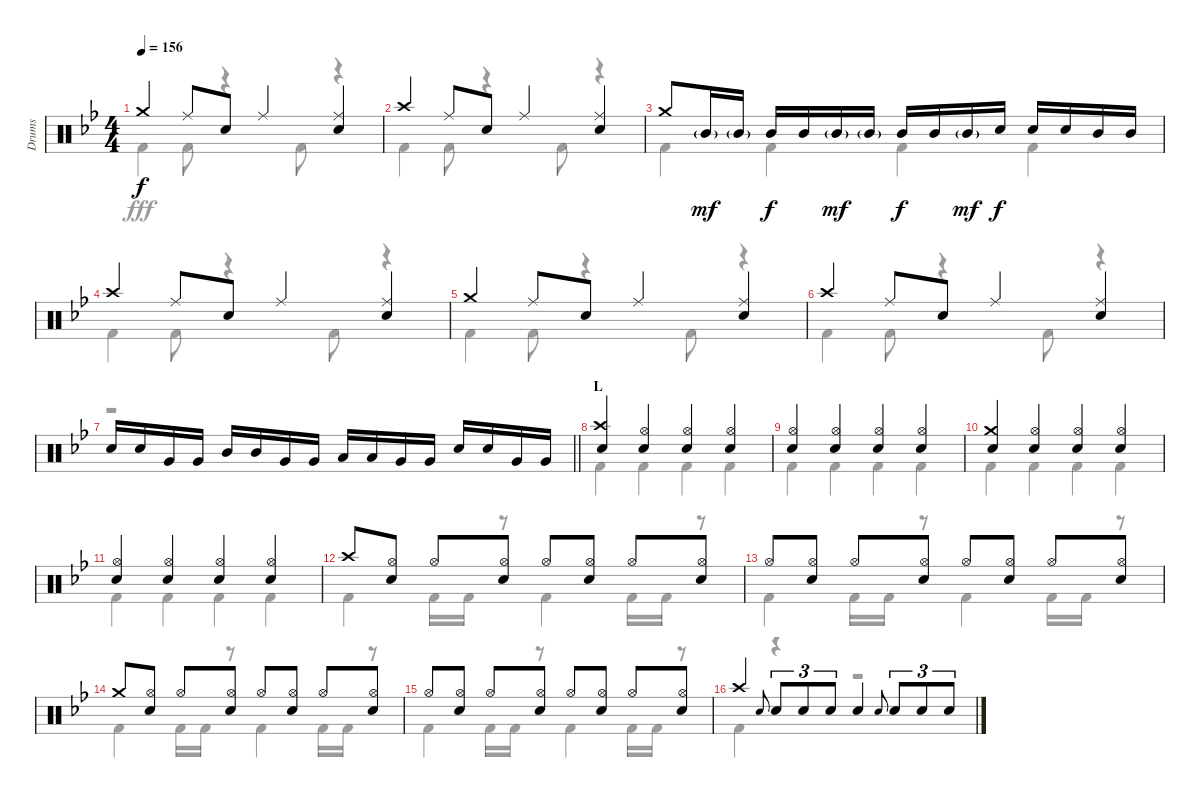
\track ("Drums" "Drums") {instrument percussion}
\staff {score}
\articulation defaults
\voice
\ts (4 4)
\tempo 156
\clef neutral
\ks bb "Crash medium (hit)".4{dy f} "Ride (middle)".8 "Snare (hit) 2".8 "Ride (middle)".4
("Ride (middle)" "Snare (hit) 2").4 |
"Crash high (hit)".4 "Ride (middle)".8 "Snare (hit) 2".8 "Ride (middle)".4 ("Ride (middle)" "Snare (hit) 2").4 |
"Crash medium (hit)".8 "Mid Tom (hit)"{g}.16{dy mf} "Mid Tom (hit)"{g}.16 "Mid Tom (hit)".16{dy f} "Mid Tom (hit)".16 "Mid Tom (hit)"{g}.16{dy mf} "Mid Tom (hit)"{g}.16 "Mid Tom (hit)".16{dy f} "Mid Tom (hit)".16 "Mid Tom (hit)"{g}.16{dy mf} "Snare (hit) 2".16{dy f} "Snare (hit) 2".16 "Snare (hit) 2".16 "Mid Tom (hit)".16 "Mid Tom (hit)".16 |
"Crash high (hit)".4 "Ride (middle)".8 "Snare (hit) 2".8 "Ride (middle)".4 ("Ride (middle)" "Snare (hit) 2").4 |
"Crash medium (hit)".4 "Ride (middle)".8 "Snare (hit) 2".8 "Ride (middle)".4 ("Ride (middle)" "Snare (hit) 2").4 |
"Crash high (hit)".4 "Ride (middle)".8 "Snare (hit) 2".8 "Ride (middle)".4 ("Ride (middle)" "Snare (hit) 2").4 |
\barLineRight lightlight "Snare (hit) 2".16 "Snare (hit) 2".16 "Very Low Tom (hit)".16 "Very Low Tom (hit)".16 "Mid Tom (hit)".16 "Mid Tom (hit)".16 "Very Low Tom (hit)".16 "Very Low Tom (hit)".16 "Low Tom (hit)".16 "Low Tom (hit)".16 "Very Low Tom (hit)".16 "Very Low Tom (hit)".16 "Snare (hit) 2".16 "Snare (hit) 2".16 "Very Low Tom (hit)".16 "Very Low Tom (hit)".16
|
\section ("" "L")
("Crash high (hit)" "Snare (hit) 2").4 ("Hi-Hat (open)" "Snare (hit) 2").4 ("Hi-Hat (open)" "Snare (hit) 2").4 ("Hi-Hat (open)" "Snare (hit) 2").4 |
("Hi-Hat (open)" "Snare (hit) 2").4 ("Hi-Hat (open)" "Snare (hit) 2").4 ("Hi-Hat (open)" "Snare (hit) 2").4 ("Hi-Hat (open)" "Snare (hit) 2").4 |
("Crash medium (hit)" "Snare (hit) 2").4 ("Hi-Hat (open)" "Snare (hit) 2").4 ("Hi-Hat (open)" "Snare (hit) 2").4 ("Hi-Hat (open)" "Snare (hit) 2").4 |
("Hi-Hat (open)" "Snare (hit) 2").4 ("Hi-Hat (open)" "Snare (hit) 2").4 ("Hi-Hat (open)" "Snare (hit) 2").4 ("Hi-Hat (open)" "Snare (hit) 2").4 |
"Crash high (hit)".8 ("Hi-Hat (open)" "Snare (hit) 2").8 "Hi-Hat (open)".8 ("Hi-Hat (open)" "Snare (hit) 2").8 "Hi-Hat (open)".8 ("Hi-Hat (open)" "Snare (hit) 2").8 "Hi-Hat (open)".8 ("Hi-Hat (open)" "Snare (hit) 2").8 |
"Hi-Hat (open)".8 ("Hi-Hat (open)" "Snare (hit) 2").8 "Hi-Hat (open)".8 ("Hi-Hat (open)" "Snare (hit) 2").8 "Hi-Hat (open)".8 ("Hi-Hat (open)" "Snare (hit) 2").8 "Hi-Hat (open)".8 ("Hi-Hat (open)" "Snare (hit) 2").8 |
"Crash medium (hit)".8 ("Hi-Hat (open)" "Snare (hit) 2").8 "Hi-Hat (open)".8 ("Hi-Hat (open)" "Snare (hit) 2").8 "Hi-Hat (open)".8 ("Hi-Hat (open)" "Snare (hit) 2").8 "Hi-Hat (open)".8 ("Hi-Hat (open)" "Snare (hit) 2").8 |
"Hi-Hat (open)".8 ("Hi-Hat (open)" "Snare (hit) 2").8 "Hi-Hat (open)".8 ("Hi-Hat (open)" "Snare (hit) 2").8 "Hi-Hat (open)".8 ("Hi-Hat (open)" "Snare (hit) 2").8 "Hi-Hat (open)".8 ("Hi-Hat (open)" "Snare (hit) 2").8 |
"Crash high (hit)".4 "Snare (hit) 2".8{gr onbeat} "Snare (hit) 2".8{tu (3 2)} "Snare (hit) 2".8{tu (3 2)} "Snare (hit) 2".8{tu (3 2)} "Snare (hit) 2".4 "Snare (hit) 2".8{gr onbeat} "Snare (hit) 2".8{tu (3 2)} "Snare (hit) 2".8{tu (3 2)} "Snare (hit) 2".8{tu (3 2)}
\voice
\clef neutral
\ottava regular
\simile none
\ks bb "Kick (hit) 2".4{dy fff} "Kick (hit) 2".8
r.4 "Kick (hit) 2".8 r.4 |
"Kick (hit) 2".4 "Kick (hit) 2".8 r.4 "Kick (hit) 2".8 r.4 |
"Kick (hit) 2".4 "Kick (hit) 2".4 "Kick (hit) 2".4 "Kick (hit) 2".4 |
"Kick (hit) 2".4 "Kick (hit) 2".8 r.4 "Kick (hit) 2".8 r.4 |
"Kick (hit) 2".4 "Kick (hit) 2".8 r.4 "Kick (hit) 2".8 r.4 |
"Kick (hit) 2".4 "Kick (hit) 2".8 r.4 "Kick (hit) 2".8 r.4 |
\barLineRight lightlight
r.1 |
"Kick (hit) 2".4 "Kick (hit) 2".4 "Kick (hit) 2".4 "Kick (hit) 2".4 |
"Kick (hit) 2".4 "Kick (hit) 2".4 "Kick (hit) 2".4 "Kick (hit) 2".4 |
"Kick (hit) 2".4 "Kick (hit) 2".4 "Kick (hit) 2".4 "Kick (hit) 2".4 |
"Kick (hit) 2".4 "Kick (hit) 2".4 "Kick (hit) 2".4 "Kick (hit) 2".4 |
"Kick (hit) 2".4 "Kick (hit) 2".16 "Kick (hit) 2".16 r.8 "Kick (hit) 2".4 "Kick (hit) 2".16 "Kick (hit) 2".16 r.8 |
"Kick (hit) 2".4 "Kick (hit) 2".16 "Kick (hit) 2".16 r.8 "Kick (hit) 2".4 "Kick (hit) 2".16 "Kick (hit) 2".16 r.8 |
"Kick (hit) 2".4 "Kick (hit) 2".16 "Kick (hit) 2".16 r.8 "Kick (hit) 2".4 "Kick (hit) 2".16 "Kick (hit) 2".16 r.8 |
"Kick (hit) 2".4 "Kick (hit) 2".16 "Kick (hit) 2".16 r.8 "Kick (hit) 2".4 "Kick (hit) 2".16 "Kick (hit) 2".16 r.8 |
"Kick (hit) 2".4 r.4 r.2
